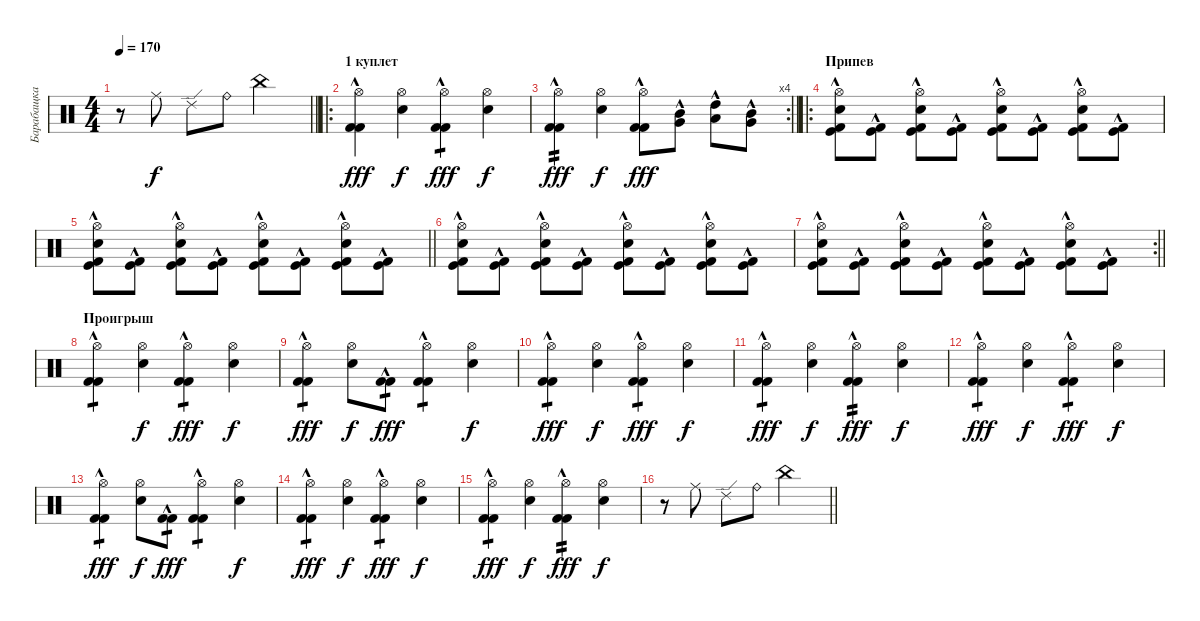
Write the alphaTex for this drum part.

\track ("Барабащка" "Барабащка") {instrument percussion}
\staff {score}
\articulation defaults
\ts (4 4)
\tempo 170
\clef neutral
\barLineRight lightlight
\ks c
r.8{dy f} "Ride (middle)".8 "Ride (edge) 2".8 "Ride (bell)".8 "China (hit)".2 |
\ro
\section ("" "1 куплет")
("Hi-Hat (open)" "Kick (hit) 2"{hac} "Kick (hit) 2").4{dy fff} ("Hi-Hat (open)" "Snare (hit) 2").4{dy f} ("Hi-Hat (open)" "Kick (hit) 2"{hac} "Kick (hit) 2").4{tp 1 dy fff} ("Hi-Hat (open)" "Snare (hit) 2").4{dy f} |
\rc 4
\barLineRight lightlight
("Hi-Hat (open)" "Kick (hit) 2"{hac} "Kick (hit) 2").4{tp 2 dy fff} ("Hi-Hat (open)" "Snare (hit) 2").4{dy f} ("Hi-Hat (open)" "Kick (hit) 2"{hac} "Kick (hit) 2").8{dy fff} ("Mid Tom (hit)"{hac} "Very Low Tom (hit)"{hac}).8 ("High Tom (hit)"{hac} "Low Tom (hit)"{hac}).8 ("Mid Tom (hit)"{hac} "Very Low Tom (hit)"{hac}).8 |
\ro
\section ("" "Припев")
("Hi-Hat (open)" "Snare (hit) 2" "Kick (hit) 2"{hac} "Kick (hit)").8 ("Kick (hit) 2"{hac} "Kick (hit)").8 ("Hi-Hat (open)" "Snare (hit) 2" "Kick (hit) 2"{hac} "Kick (hit)").8 ("Kick (hit) 2"{hac} "Kick (hit)").8 ("Hi-Hat (open)" "Snare (hit) 2" "Kick (hit) 2"{hac} "Kick (hit)").8 ("Kick (hit) 2"{hac} "Kick (hit)").8 ("Hi-Hat (open)" "Snare (hit) 2" "Kick (hit) 2"{hac} "Kick (hit)").8 ("Kick (hit) 2"{hac} "Kick (hit)").8 |
\barLineRight lightlight
("Hi-Hat (open)" "Snare (hit) 2" "Kick (hit) 2"{hac} "Kick (hit)").8 ("Kick (hit) 2"{hac} "Kick (hit)").8 ("Hi-Hat (open)" "Snare (hit) 2" "Kick (hit) 2"{hac} "Kick (hit)").8 ("Kick (hit) 2"{hac} "Kick (hit)").8 ("Hi-Hat (open)" "Snare (hit) 2" "Kick (hit) 2"{hac} "Kick (hit)").8 ("Kick (hit) 2"{hac} "Kick (hit)").8 ("Hi-Hat (open)" "Snare (hit) 2" "Kick (hit) 2"{hac} "Kick (hit)").8 ("Kick (hit) 2"{hac} "Kick (hit)").8 |
("Hi-Hat (open)" "Snare (hit) 2" "Kick (hit) 2"{hac} "Kick (hit)").8 ("Kick (hit) 2"{hac} "Kick (hit)").8 ("Hi-Hat (open)" "Snare (hit) 2" "Kick (hit) 2"{hac} "Kick (hit)").8 ("Kick (hit) 2"{hac} "Kick (hit)").8 ("Hi-Hat (open)" "Snare (hit) 2" "Kick (hit) 2"{hac} "Kick (hit)").8 ("Kick (hit) 2"{hac} "Kick (hit)").8 ("Hi-Hat (open)" "Snare (hit) 2" "Kick (hit) 2"{hac} "Kick (hit)").8 ("Kick (hit) 2"{hac} "Kick (hit)").8 |
\rc 2
\barLineRight lightlight
("Hi-Hat (open)" "Snare (hit) 2" "Kick (hit) 2"{hac} "Kick (hit)").8 ("Kick (hit) 2"{hac} "Kick (hit)").8 ("Hi-Hat (open)" "Snare (hit) 2" "Kick (hit) 2"{hac} "Kick (hit)").8 ("Kick (hit) 2"{hac} "Kick (hit)").8 ("Hi-Hat (open)" "Snare (hit) 2" "Kick (hit) 2"{hac} "Kick (hit)").8 ("Kick (hit) 2"{hac} "Kick (hit)").8 ("Hi-Hat (open)" "Snare (hit) 2" "Kick (hit) 2"{hac} "Kick (hit)").8 ("Kick (hit) 2"{hac} "Kick (hit)").8 |
\section ("" "Проигрыш")
("Hi-Hat (open)" "Kick (hit) 2"{hac} "Kick (hit) 2").4{tp 1} ("Hi-Hat (open)" "Snare (hit) 2").4{dy f} ("Hi-Hat (open)" "Kick (hit) 2"{hac} "Kick (hit) 2").4{tp 1 dy fff} ("Hi-Hat (open)" "Snare (hit) 2").4{dy f} |
("Hi-Hat (open)" "Kick (hit) 2"{hac} "Kick (hit) 2").4{tp 1 dy fff} ("Hi-Hat (open)" "Snare (hit) 2").8{dy f} ("Kick (hit) 2"{hac} "Kick (hit) 2").8{tp 1 dy fff} ("Hi-Hat (open)" "Kick (hit) 2"{hac} "Kick (hit) 2").4{tp 1} ("Hi-Hat (open)" "Snare (hit) 2").4{dy f} |
("Hi-Hat (open)" "Kick (hit) 2"{hac} "Kick (hit) 2").4{tp 1 dy fff} ("Hi-Hat (open)" "Snare (hit) 2").4{dy f} ("Hi-Hat (open)" "Kick (hit) 2"{hac} "Kick (hit) 2").4{tp 1 dy fff} ("Hi-Hat (open)" "Snare (hit) 2").4{dy f} |
("Hi-Hat (open)" "Kick (hit) 2"{hac} "Kick (hit) 2").4{tp 1 dy fff} ("Hi-Hat (open)" "Snare (hit) 2").4{dy f} ("Hi-Hat (open)" "Kick (hit) 2"{hac} "Kick (hit) 2").4{tp 2 dy fff} ("Hi-Hat (open)" "Snare (hit) 2").4{dy f} |
("Hi-Hat (open)" "Kick (hit) 2"{hac} "Kick (hit) 2").4{tp 1 dy fff} ("Hi-Hat (open)" "Snare (hit) 2").4{dy f} ("Hi-Hat (open)" "Kick (hit) 2"{hac} "Kick (hit) 2").4{tp 1 dy fff} ("Hi-Hat (open)" "Snare (hit) 2").4{dy f} |
("Hi-Hat (open)" "Kick (hit) 2"{hac} "Kick (hit) 2").4{tp 1 dy fff} ("Hi-Hat (open)" "Snare (hit) 2").8{dy f} ("Kick (hit) 2"{hac} "Kick (hit) 2").8{tp 1 dy fff} ("Hi-Hat (open)" "Kick (hit) 2"{hac} "Kick (hit) 2").4{tp 1} ("Hi-Hat (open)" "Snare (hit) 2").4{dy f} |
("Hi-Hat (open)" "Kick (hit) 2"{hac} "Kick (hit) 2").4{tp 1 dy fff} ("Hi-Hat (open)" "Snare (hit) 2").4{dy f} ("Hi-Hat (open)" "Kick (hit) 2"{hac} "Kick (hit) 2").4{tp 1 dy fff} ("Hi-Hat (open)" "Snare (hit) 2").4{dy f} |
("Hi-Hat (open)" "Kick (hit) 2"{hac} "Kick (hit) 2").4{tp 1 dy fff} ("Hi-Hat (open)" "Snare (hit) 2").4{dy f} ("Hi-Hat (open)" "Kick (hit) 2"{hac} "Kick (hit) 2").4{tp 2 dy fff} ("Hi-Hat (open)" "Snare (hit) 2").4{dy f} |
\barLineRight lightlight
r.8 "Ride (middle)".8 "Ride (edge) 2".8 "Ride (bell)".8 "China (hit)".2
